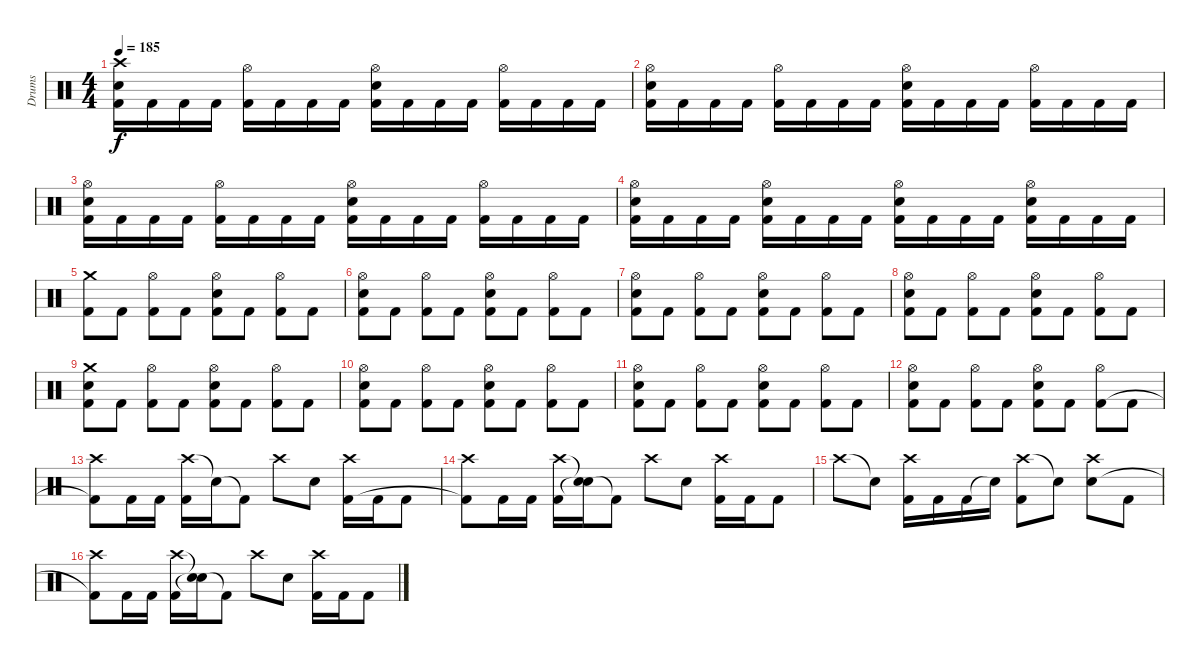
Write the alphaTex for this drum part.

\track ("Drums" "Drums") {instrument percussion}
\staff {score}
\articulation defaults
\ts (4 4)
\tempo 185
\clef neutral
\ks c
("Crash high (hit)" "Electric Snare (hit)" "Kick (hit) 2").16{dy f} "Kick (hit) 2".16 "Kick (hit) 2".16 "Kick (hit) 2".16 ("Hi-Hat (open)" "Kick (hit) 2").16 "Kick (hit) 2".16 "Kick (hit) 2".16 "Kick (hit) 2".16 ("Hi-Hat (open)" "Electric Snare (hit)" "Kick (hit) 2").16 "Kick (hit) 2".16 "Kick (hit) 2".16 "Kick (hit) 2".16 ("Hi-Hat (open)" "Kick (hit) 2").16 "Kick (hit) 2".16 "Kick (hit) 2".16 "Kick (hit) 2".16 |
("Hi-Hat (open)" "Electric Snare (hit)" "Kick (hit) 2").16 "Kick (hit) 2".16 "Kick (hit) 2".16 "Kick (hit) 2".16 ("Hi-Hat (open)" "Kick (hit) 2").16 "Kick (hit) 2".16 "Kick (hit) 2".16 "Kick (hit) 2".16 ("Hi-Hat (open)" "Electric Snare (hit)" "Kick (hit) 2").16 "Kick (hit) 2".16 "Kick (hit) 2".16 "Kick (hit) 2".16 ("Hi-Hat (open)" "Kick (hit) 2").16 "Kick (hit) 2".16 "Kick (hit) 2".16 "Kick (hit) 2".16 |
("Hi-Hat (open)" "Electric Snare (hit)" "Kick (hit) 2").16 "Kick (hit) 2".16 "Kick (hit) 2".16 "Kick (hit) 2".16 ("Hi-Hat (open)" "Kick (hit) 2").16 "Kick (hit) 2".16 "Kick (hit) 2".16 "Kick (hit) 2".16 ("Hi-Hat (open)" "Electric Snare (hit)" "Kick (hit) 2").16 "Kick (hit) 2".16 "Kick (hit) 2".16 "Kick (hit) 2".16 ("Hi-Hat (open)" "Kick (hit) 2").16 "Kick (hit) 2".16 "Kick (hit) 2".16 "Kick (hit) 2".16 |
("Hi-Hat (open)" "Electric Snare (hit)" "Kick (hit) 2").16 "Kick (hit) 2".16 "Kick (hit) 2".16 "Kick (hit) 2".16 ("Hi-Hat (open)" "Electric Snare (hit)" "Kick (hit) 2").16 "Kick (hit) 2".16 "Kick (hit) 2".16 "Kick (hit) 2".16 ("Hi-Hat (open)" "Electric Snare (hit)" "Kick (hit) 2").16 "Kick (hit) 2".16 "Kick (hit) 2".16 "Kick (hit) 2".16 ("Hi-Hat (open)" "Electric Snare (hit)" "Kick (hit) 2").16 "Kick (hit) 2".16 "Kick (hit) 2".16 "Kick (hit) 2".16 |
("Crash medium (hit)" "Kick (hit) 2").8 "Kick (hit) 2".8 ("Hi-Hat (open)" "Kick (hit) 2").8 "Kick (hit) 2".8 ("Hi-Hat (open)" "Electric Snare (hit)" "Kick (hit) 2").8 "Kick (hit) 2".8 ("Hi-Hat (open)" "Kick (hit) 2").8 "Kick (hit) 2".8 |
("Hi-Hat (open)" "Electric Snare (hit)" "Kick (hit) 2").8 "Kick (hit) 2".8 ("Hi-Hat (open)" "Kick (hit) 2").8 "Kick (hit) 2".8 ("Hi-Hat (open)" "Electric Snare (hit)" "Kick (hit) 2").8 "Kick (hit) 2".8 ("Hi-Hat (open)" "Kick (hit) 2").8 "Kick (hit) 2".8 |
("Hi-Hat (open)" "Electric Snare (hit)" "Kick (hit) 2").8 "Kick (hit) 2".8 ("Hi-Hat (open)" "Kick (hit) 2").8 "Kick (hit) 2".8 ("Hi-Hat (open)" "Electric Snare (hit)" "Kick (hit) 2").8 "Kick (hit) 2".8 ("Hi-Hat (open)" "Kick (hit) 2").8 "Kick (hit) 2".8 |
("Hi-Hat (open)" "Electric Snare (hit)" "Kick (hit) 2").8 "Kick (hit) 2".8 ("Hi-Hat (open)" "Kick (hit) 2").8 "Kick (hit) 2".8 ("Hi-Hat (open)" "Electric Snare (hit)" "Kick (hit) 2").8 "Kick (hit) 2".8 ("Hi-Hat (open)" "Kick (hit) 2").8 "Kick (hit) 2".8 |
("Crash medium (hit)" "Electric Snare (hit)" "Kick (hit) 2").8 "Kick (hit) 2".8 ("Hi-Hat (open)" "Kick (hit) 2").8 "Kick (hit) 2".8 ("Hi-Hat (open)" "Electric Snare (hit)" "Kick (hit) 2").8 "Kick (hit) 2".8 ("Hi-Hat (open)" "Kick (hit) 2").8 "Kick (hit) 2".8 |
("Hi-Hat (open)" "Electric Snare (hit)" "Kick (hit) 2").8 "Kick (hit) 2".8 ("Hi-Hat (open)" "Kick (hit) 2").8 "Kick (hit) 2".8 ("Hi-Hat (open)" "Electric Snare (hit)" "Kick (hit) 2").8 "Kick (hit) 2".8 ("Hi-Hat (open)" "Kick (hit) 2").8 "Kick (hit) 2".8 |
("Hi-Hat (open)" "Electric Snare (hit)" "Kick (hit) 2").8 "Kick (hit) 2".8 ("Hi-Hat (open)" "Kick (hit) 2").8 "Kick (hit) 2".8 ("Hi-Hat (open)" "Electric Snare (hit)" "Kick (hit) 2").8 "Kick (hit) 2".8 ("Hi-Hat (open)" "Kick (hit) 2").8 "Kick (hit) 2".8 |
("Hi-Hat (open)" "Electric Snare (hit)" "Kick (hit) 2").8 "Kick (hit) 2".8 ("Hi-Hat (open)" "Kick (hit) 2").8 "Kick (hit) 2".8 ("Hi-Hat (open)" "Electric Snare (hit)" "Kick (hit) 2").8 "Kick (hit) 2".8 ("Hi-Hat (open)" "Kick (hit) 2").8 "Kick (hit) 2".8 |
("Crash high (hit)" "Kick (hit) 2"{t}).8 "Kick (hit) 2".16 "Kick (hit) 2".16 ("Crash high (hit)" "Kick (hit) 2").16 "Snare (hit)"{t}.16 "Kick (hit) 2"{t}.8 "Crash high (hit)".8 "Electric Snare (hit)".8 ("Crash high (hit)" "Kick (hit) 2").16 "Kick (hit) 2".16 "Kick (hit) 2".8 |
("Crash high (hit)" "Kick (hit) 2"{t}).8 "Kick (hit) 2".16 "Kick (hit) 2".16 ("Crash high (hit)" "Kick (hit) 2").16 ("Snare (hit)"{t} "Snare (hit)"{t}).16 "Kick (hit) 2"{t}.8 "Crash high (hit)".8 "Electric Snare (hit)".8 ("Crash high (hit)" "Kick (hit) 2").16 "Kick (hit) 2".16 "Kick (hit) 2".8 |
"Crash high (hit)".8 "Snare (hit)"{t}.8 ("Crash high (hit)" "Kick (hit) 2").16 "Kick (hit) 2".16 "Kick (hit) 2".16 "Snare (hit)"{t}.16 ("Crash high (hit)" "Kick (hit) 2").8 "Snare (hit)"{t}.8 ("Crash high (hit)" "Electric Snare (hit)").8 "Kick (hit) 2".8 |
("Crash high (hit)" "Kick (hit) 2"{t}).8 "Kick (hit) 2".16 "Kick (hit) 2".16 ("Crash high (hit)" "Kick (hit) 2").16 ("Snare (hit)"{t} "Snare (hit)"{t}).16 "Kick (hit) 2"{t}.8 "Crash high (hit)".8 "Electric Snare (hit)".8 ("Crash high (hit)" "Kick (hit) 2").16 "Kick (hit) 2".16 "Kick (hit) 2".8
